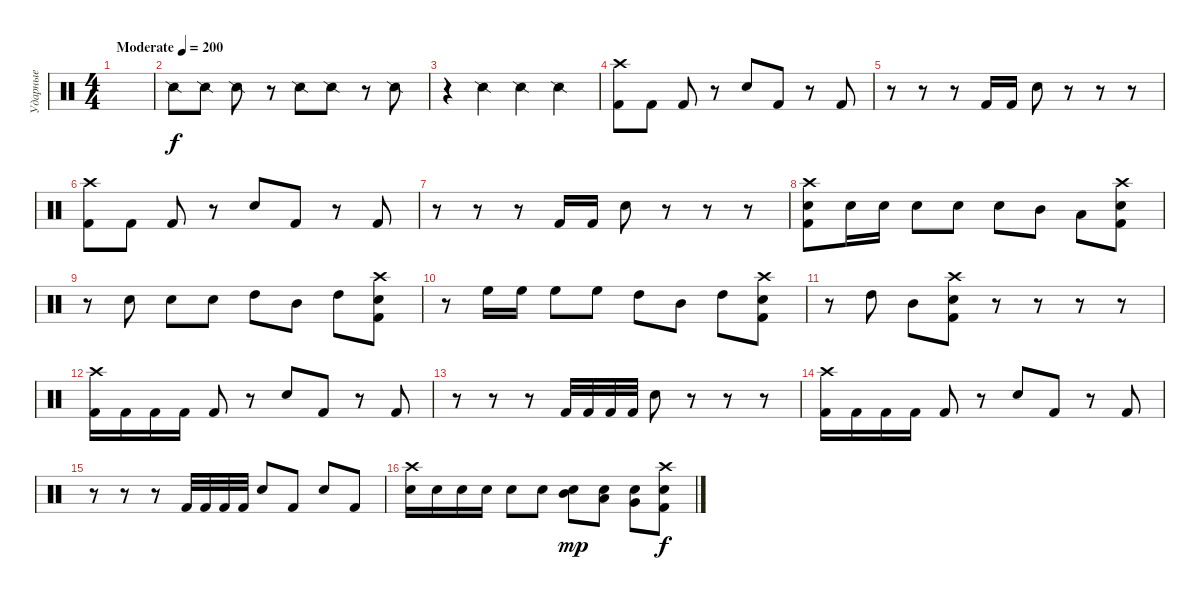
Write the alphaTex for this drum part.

\track ("Ударные" "Ударные") {instrument percussion bank 101}
\staff {score}
\articulation defaults
\ts (4 4)
\tempo (200 "Moderate")
\clef neutral
\ks c
|
"Snare (side stick) 2".8 "Snare (side stick) 2".8 "Snare (side stick) 2".8 r.8 "Snare (side stick) 2".8 "Snare (side stick) 2".8 r.8 "Snare (side stick) 2".8 |
r.4 "Snare (side stick) 2".4 "Snare (side stick) 2".4 "Snare (side stick) 2".4 |
("Crash high (hit)" "Kick (hit) 2").8 "Kick (hit) 2".8 "Kick (hit) 2".8 r.8 "Electric Snare (hit)".8 "Kick (hit) 2".8 r.8 "Kick (hit) 2".8 |
r.8 r.8 r.8 "Kick (hit) 2".16 "Kick (hit) 2".16 "Snare (hit) 2".8 r.8 r.8 r.8 |
("Crash high (hit)" "Kick (hit) 2").8 "Kick (hit) 2".8 "Kick (hit) 2".8 r.8 "Electric Snare (hit)".8 "Kick (hit) 2".8 r.8 "Kick (hit) 2".8 |
r.8 r.8 r.8 "Kick (hit) 2".16 "Kick (hit) 2".16 "Snare (hit) 2".8 r.8 r.8 r.8 |
("Electric Snare (hit)" "Crash high (hit)" "Kick (hit) 2").8 "Electric Snare (hit)".16 "Electric Snare (hit)".16 "Electric Snare (hit)".8 "Electric Snare (hit)".8 "Electric Snare (hit)".8 "Mid Tom (hit)".8 "Low Tom (hit)".8 ("Crash high (hit)" "Electric Snare (hit)" "Kick (hit) 2").8 |
r.8 "Electric Snare (hit)".8 "Electric Snare (hit)".8 "Electric Snare (hit)".8 "High Tom (hit)".8 "Mid Tom (hit)".8 "High Tom (hit)".8 ("Crash high (hit)" "Electric Snare (hit)" "Kick (hit) 2").8 |
r.8 "High Floor Tom (hit)".16 "High Floor Tom (hit)".16 "High Floor Tom (hit)".8 "High Floor Tom (hit)".8 "High Tom (hit)".8 "Mid Tom (hit)".8 "High Tom (hit)".8 ("Crash high (hit)" "Electric Snare (hit)" "Kick (hit) 2").8 |
r.8 "High Tom (hit)".8 "Mid Tom (hit)".8 ("Crash high (hit)" "Electric Snare (hit)" "Kick (hit) 2").8 r.8 r.8 r.8 r.8 |
("Crash high (hit)" "Kick (hit) 2").16 "Kick (hit) 2".16 "Kick (hit) 2".16 "Kick (hit) 2".16 "Kick (hit) 2".8 r.8 "Electric Snare (hit)".8 "Kick (hit) 2".8 r.8 "Kick (hit) 2".8 |
r.8 r.8 r.8 "Kick (hit) 2".32 "Kick (hit) 2".32 "Kick (hit) 2".32 "Kick (hit) 2".32 "Snare (hit) 2".8 r.8 r.8 r.8 |
("Crash high (hit)" "Kick (hit) 2").16 "Kick (hit) 2".16 "Kick (hit) 2".16 "Kick (hit) 2".16 "Kick (hit) 2".8 r.8 "Electric Snare (hit)".8 "Kick (hit) 2".8 r.8 "Kick (hit) 2".8 |
r.8 r.8 r.8 "Kick (hit) 2".32 "Kick (hit) 2".32 "Kick (hit) 2".32 "Kick (hit) 2".32 "Snare (hit) 2".8 "Kick (hit) 2".8 "Snare (hit) 2".8 "Kick (hit) 2".8 |
("Crash high (hit)" "Electric Snare (hit)").16 "Electric Snare (hit)".16 "Electric Snare (hit)".16 "Electric Snare (hit)".16 "Electric Snare (hit)".8 "Electric Snare (hit)".8 ("Mid Tom (hit)" "Electric Snare (hit)").8{dy mp} ("Low Tom (hit)" "Electric Snare (hit)").8 ("Very Low Tom (hit)" "Electric Snare (hit)").8 ("Crash high (hit)" "Electric Snare (hit)" "Kick (hit) 2").8{dy f}
